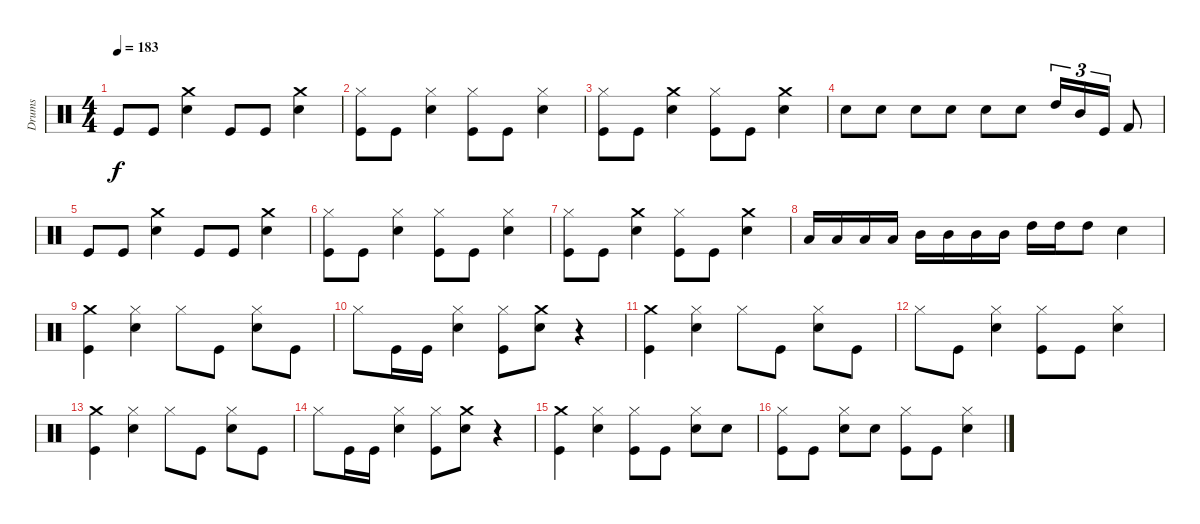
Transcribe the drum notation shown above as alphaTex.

\track ("Drums" "Drums") {instrument percussion}
\staff {score}
\articulation defaults
\ts (4 4)
\tempo 183
\clef neutral
\ks c "Kick (hit)".8{dy f} "Kick (hit)".8
("Crash medium (hit)" "Snare (hit) 2").4 "Kick (hit)".8 "Kick (hit)".8 ("Crash medium (hit)" "Snare (hit) 2").4 |
("Kick (hit)" "Hi-Hat (closed)").8 "Kick (hit)".8 ("Snare (hit) 2" "Hi-Hat (closed)").4 ("Kick (hit)" "Hi-Hat (closed)").8 "Kick (hit)".8 ("Snare (hit) 2" "Hi-Hat (closed)").4 |
("Kick (hit)" "Hi-Hat (closed)").8 "Kick (hit)".8 ("Snare (hit) 2" "Crash medium (hit)").4 ("Kick (hit)" "Hi-Hat (closed)").8 "Kick (hit)".8 ("Crash medium (hit)" "Snare (hit) 2").4 |
"Snare (hit) 2".8 "Snare (hit) 2".8 "Snare (hit) 2".8 "Snare (hit) 2".8 "Snare (hit) 2".8 "Snare (hit) 2".8 "High Tom (hit)".16{tu (3 2)} "Mid Tom (hit)".16{tu (3 2)} "Kick (hit)".16{tu (3 2)} "Kick (hit) 2".8 |
"Kick (hit)".8 "Kick (hit)".8 ("Crash medium (hit)" "Snare (hit) 2").4 "Kick (hit)".8 "Kick (hit)".8 ("Crash medium (hit)" "Snare (hit) 2").4 |
("Kick (hit)" "Hi-Hat (closed)").8 "Kick (hit)".8 ("Snare (hit) 2" "Hi-Hat (closed)").4 ("Kick (hit)" "Hi-Hat (closed)").8 "Kick (hit)".8 ("Snare (hit) 2" "Hi-Hat (closed)").4 |
("Kick (hit)" "Hi-Hat (closed)").8 "Kick (hit)".8 ("Snare (hit) 2" "Crash medium (hit)").4 ("Kick (hit)" "Hi-Hat (closed)").8 "Kick (hit)".8 ("Crash medium (hit)" "Snare (hit) 2").4 |
"Low Tom (hit)".16 "Low Tom (hit)".16 "Low Tom (hit)".16 "Low Tom (hit)".16 "Mid Tom (hit)".16 "Mid Tom (hit)".16 "Mid Tom (hit)".16 "Mid Tom (hit)".16 "High Tom (hit)".16 "High Tom (hit)".16 "High Tom (hit)".8 "Snare (hit) 2".4 |
("Kick (hit)" "Crash medium (hit)").4 ("Hi-Hat (closed)" "Snare (hit) 2").4 "Hi-Hat (closed)".8 "Kick (hit)".8 ("Snare (hit) 2" "Hi-Hat (closed)").8 "Kick (hit)".8 |
"Hi-Hat (closed)".8 "Kick (hit)".16 "Kick (hit)".16 ("Snare (hit) 2" "Hi-Hat (closed)").4 ("Kick (hit)" "Hi-Hat (closed)").8 ("Snare (hit) 2" "Crash medium (hit)").8 r.4 |
("Kick (hit)" "Crash medium (hit)").4 ("Hi-Hat (closed)" "Snare (hit) 2").4 "Hi-Hat (closed)".8 "Kick (hit)".8 ("Snare (hit) 2" "Hi-Hat (closed)").8 "Kick (hit)".8 |
"Hi-Hat (closed)".8 "Kick (hit)".8 ("Snare (hit) 2" "Hi-Hat (closed)").4 ("Hi-Hat (closed)" "Kick (hit)").8 "Kick (hit)".8 ("Snare (hit) 2" "Hi-Hat (closed)").4 |
("Kick (hit)" "Crash medium (hit)").4 ("Hi-Hat (closed)" "Snare (hit) 2").4 "Hi-Hat (closed)".8 "Kick (hit)".8 ("Snare (hit) 2" "Hi-Hat (closed)").8 "Kick (hit)".8 |
"Hi-Hat (closed)".8 "Kick (hit)".16 "Kick (hit)".16 ("Snare (hit) 2" "Hi-Hat (closed)").4 ("Kick (hit)" "Hi-Hat (closed)").8 ("Snare (hit) 2" "Crash medium (hit)").8 r.4 |
("Kick (hit)" "Crash medium (hit)").4 ("Hi-Hat (closed)" "Snare (hit) 2").4 ("Kick (hit)" "Hi-Hat (closed)").8 "Kick (hit)".8 ("Hi-Hat (closed)" "Snare (hit) 2").8 "Snare (hit) 2".8 |
("Kick (hit)" "Hi-Hat (closed)").8 "Kick (hit)".8 ("Hi-Hat (closed)" "Snare (hit) 2").8 "Snare (hit) 2".8 ("Kick (hit)" "Hi-Hat (closed)").8 "Kick (hit)".8 ("Snare (hit) 2" "Hi-Hat (closed)").4
